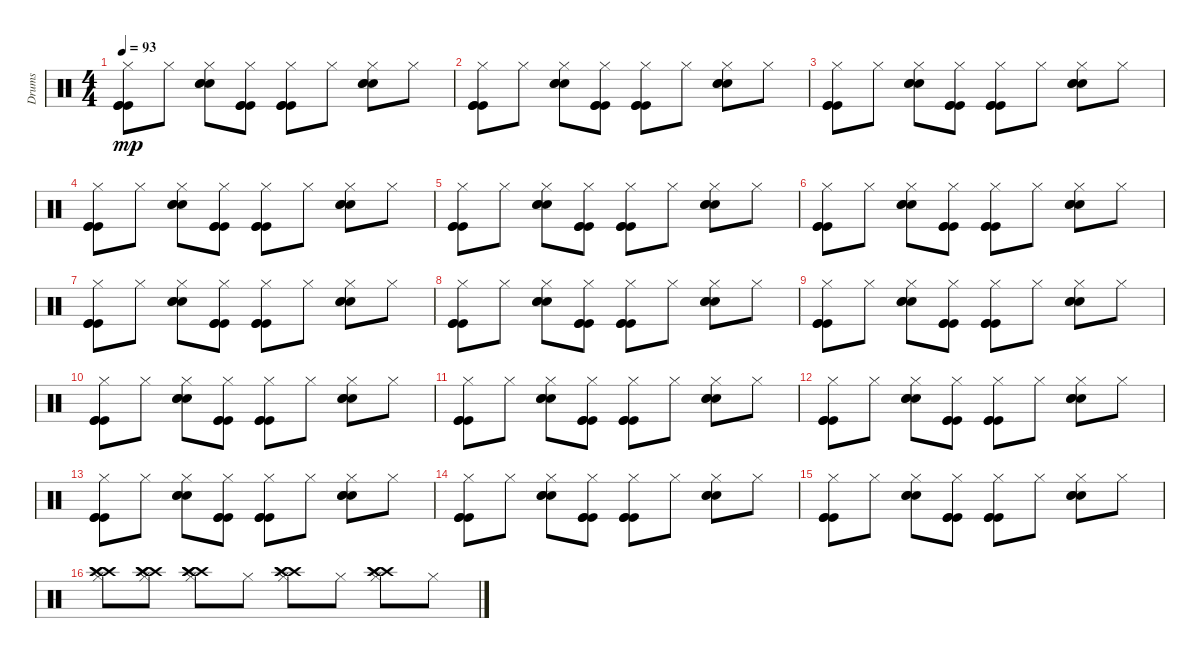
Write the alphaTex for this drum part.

\track ("Drums" "Drums") {instrument percussion}
\staff {score}
\articulation defaults
\ts (4 4)
\tempo 93
\clef neutral
\ks c
("Kick (hit)" "Kick (hit)" "Kick (hit)" "Hi-Hat (closed)").8{dy mp} "Hi-Hat (closed)".8 ("Snare (hit) 2" "Snare (hit) 2" "Snare (hit) 2" "Hi-Hat (closed)").8 ("Kick (hit)" "Kick (hit)" "Kick (hit)" "Hi-Hat (closed)").8 ("Kick (hit)" "Kick (hit)" "Kick (hit)" "Hi-Hat (closed)").8 "Hi-Hat (closed)".8 ("Snare (hit) 2" "Snare (hit) 2" "Snare (hit) 2" "Hi-Hat (closed)").8 "Hi-Hat (closed)".8 |
("Kick (hit)" "Kick (hit)" "Kick (hit)" "Hi-Hat (closed)").8 "Hi-Hat (closed)".8 ("Snare (hit) 2" "Snare (hit) 2" "Snare (hit) 2" "Hi-Hat (closed)").8 ("Kick (hit)" "Kick (hit)" "Kick (hit)" "Hi-Hat (closed)").8 ("Kick (hit)" "Kick (hit)" "Kick (hit)" "Hi-Hat (closed)").8 "Hi-Hat (closed)".8 ("Snare (hit) 2" "Snare (hit) 2" "Snare (hit) 2" "Hi-Hat (closed)").8 "Hi-Hat (closed)".8 |
("Kick (hit)" "Kick (hit)" "Kick (hit)" "Hi-Hat (closed)").8 "Hi-Hat (closed)".8 ("Snare (hit) 2" "Snare (hit) 2" "Snare (hit) 2" "Hi-Hat (closed)").8 ("Kick (hit)" "Kick (hit)" "Kick (hit)" "Hi-Hat (closed)").8 ("Kick (hit)" "Kick (hit)" "Kick (hit)" "Hi-Hat (closed)").8 "Hi-Hat (closed)".8 ("Snare (hit) 2" "Snare (hit) 2" "Snare (hit) 2" "Hi-Hat (closed)").8 "Hi-Hat (closed)".8 |
("Kick (hit)" "Kick (hit)" "Kick (hit)" "Hi-Hat (closed)").8 "Hi-Hat (closed)".8 ("Snare (hit) 2" "Snare (hit) 2" "Snare (hit) 2" "Hi-Hat (closed)").8 ("Kick (hit)" "Kick (hit)" "Kick (hit)" "Hi-Hat (closed)").8 ("Kick (hit)" "Kick (hit)" "Kick (hit)" "Hi-Hat (closed)").8 "Hi-Hat (closed)".8 ("Snare (hit) 2" "Snare (hit) 2" "Snare (hit) 2" "Hi-Hat (closed)").8 "Hi-Hat (closed)".8 |
("Kick (hit)" "Kick (hit)" "Kick (hit)" "Hi-Hat (closed)").8 "Hi-Hat (closed)".8 ("Snare (hit) 2" "Snare (hit) 2" "Snare (hit) 2" "Hi-Hat (closed)").8 ("Kick (hit)" "Kick (hit)" "Kick (hit)" "Hi-Hat (closed)").8 ("Kick (hit)" "Kick (hit)" "Kick (hit)" "Hi-Hat (closed)").8 "Hi-Hat (closed)".8 ("Snare (hit) 2" "Snare (hit) 2" "Snare (hit) 2" "Hi-Hat (closed)").8 "Hi-Hat (closed)".8 |
("Kick (hit)" "Kick (hit)" "Kick (hit)" "Hi-Hat (closed)").8 "Hi-Hat (closed)".8 ("Snare (hit) 2" "Snare (hit) 2" "Snare (hit) 2" "Hi-Hat (closed)").8 ("Kick (hit)" "Kick (hit)" "Kick (hit)" "Hi-Hat (closed)").8 ("Kick (hit)" "Kick (hit)" "Kick (hit)" "Hi-Hat (closed)").8 "Hi-Hat (closed)".8 ("Snare (hit) 2" "Snare (hit) 2" "Snare (hit) 2" "Hi-Hat (closed)").8 "Hi-Hat (closed)".8 |
("Kick (hit)" "Kick (hit)" "Kick (hit)" "Hi-Hat (closed)").8 "Hi-Hat (closed)".8 ("Snare (hit) 2" "Snare (hit) 2" "Snare (hit) 2" "Hi-Hat (closed)").8 ("Kick (hit)" "Kick (hit)" "Kick (hit)" "Hi-Hat (closed)").8 ("Kick (hit)" "Kick (hit)" "Kick (hit)" "Hi-Hat (closed)").8 "Hi-Hat (closed)".8 ("Snare (hit) 2" "Snare (hit) 2" "Snare (hit) 2" "Hi-Hat (closed)").8 "Hi-Hat (closed)".8 |
("Kick (hit)" "Kick (hit)" "Kick (hit)" "Hi-Hat (closed)").8 "Hi-Hat (closed)".8 ("Snare (hit) 2" "Snare (hit) 2" "Snare (hit) 2" "Hi-Hat (closed)").8 ("Kick (hit)" "Kick (hit)" "Kick (hit)" "Hi-Hat (closed)").8 ("Kick (hit)" "Kick (hit)" "Kick (hit)" "Hi-Hat (closed)").8 "Hi-Hat (closed)".8 ("Snare (hit) 2" "Snare (hit) 2" "Snare (hit) 2" "Hi-Hat (closed)").8 "Hi-Hat (closed)".8 |
("Kick (hit)" "Kick (hit)" "Kick (hit)" "Hi-Hat (closed)").8 "Hi-Hat (closed)".8 ("Snare (hit) 2" "Snare (hit) 2" "Snare (hit) 2" "Hi-Hat (closed)").8 ("Kick (hit)" "Kick (hit)" "Kick (hit)" "Hi-Hat (closed)").8 ("Kick (hit)" "Kick (hit)" "Kick (hit)" "Hi-Hat (closed)").8 "Hi-Hat (closed)".8 ("Snare (hit) 2" "Snare (hit) 2" "Snare (hit) 2" "Hi-Hat (closed)").8 "Hi-Hat (closed)".8 |
("Kick (hit)" "Kick (hit)" "Kick (hit)" "Hi-Hat (closed)").8 "Hi-Hat (closed)".8 ("Snare (hit) 2" "Snare (hit) 2" "Snare (hit) 2" "Hi-Hat (closed)").8 ("Kick (hit)" "Kick (hit)" "Kick (hit)" "Hi-Hat (closed)").8 ("Kick (hit)" "Kick (hit)" "Kick (hit)" "Hi-Hat (closed)").8 "Hi-Hat (closed)".8 ("Snare (hit) 2" "Snare (hit) 2" "Snare (hit) 2" "Hi-Hat (closed)").8 "Hi-Hat (closed)".8 |
("Kick (hit)" "Kick (hit)" "Kick (hit)" "Hi-Hat (closed)").8 "Hi-Hat (closed)".8 ("Snare (hit) 2" "Snare (hit) 2" "Snare (hit) 2" "Hi-Hat (closed)").8 ("Kick (hit)" "Kick (hit)" "Kick (hit)" "Hi-Hat (closed)").8 ("Kick (hit)" "Kick (hit)" "Kick (hit)" "Hi-Hat (closed)").8 "Hi-Hat (closed)".8 ("Snare (hit) 2" "Snare (hit) 2" "Snare (hit) 2" "Hi-Hat (closed)").8 "Hi-Hat (closed)".8 |
("Kick (hit)" "Kick (hit)" "Kick (hit)" "Hi-Hat (closed)").8 "Hi-Hat (closed)".8 ("Snare (hit) 2" "Snare (hit) 2" "Snare (hit) 2" "Hi-Hat (closed)").8 ("Kick (hit)" "Kick (hit)" "Kick (hit)" "Hi-Hat (closed)").8 ("Kick (hit)" "Kick (hit)" "Kick (hit)" "Hi-Hat (closed)").8 "Hi-Hat (closed)".8 ("Snare (hit) 2" "Snare (hit) 2" "Snare (hit) 2" "Hi-Hat (closed)").8 "Hi-Hat (closed)".8 |
("Kick (hit)" "Kick (hit)" "Kick (hit)" "Hi-Hat (closed)").8 "Hi-Hat (closed)".8 ("Snare (hit) 2" "Snare (hit) 2" "Snare (hit) 2" "Hi-Hat (closed)").8 ("Kick (hit)" "Kick (hit)" "Kick (hit)" "Hi-Hat (closed)").8 ("Kick (hit)" "Kick (hit)" "Kick (hit)" "Hi-Hat (closed)").8 "Hi-Hat (closed)".8 ("Snare (hit) 2" "Snare (hit) 2" "Snare (hit) 2" "Hi-Hat (closed)").8 "Hi-Hat (closed)".8 |
("Kick (hit)" "Kick (hit)" "Kick (hit)" "Hi-Hat (closed)").8 "Hi-Hat (closed)".8 ("Snare (hit) 2" "Snare (hit) 2" "Snare (hit) 2" "Hi-Hat (closed)").8 ("Kick (hit)" "Kick (hit)" "Kick (hit)" "Hi-Hat (closed)").8 ("Kick (hit)" "Kick (hit)" "Kick (hit)" "Hi-Hat (closed)").8 "Hi-Hat (closed)".8 ("Snare (hit) 2" "Snare (hit) 2" "Snare (hit) 2" "Hi-Hat (closed)").8 "Hi-Hat (closed)".8 |
("Kick (hit)" "Kick (hit)" "Kick (hit)" "Hi-Hat (closed)").8 "Hi-Hat (closed)".8 ("Snare (hit) 2" "Snare (hit) 2" "Snare (hit) 2" "Hi-Hat (closed)").8 ("Kick (hit)" "Kick (hit)" "Kick (hit)" "Hi-Hat (closed)").8 ("Kick (hit)" "Kick (hit)" "Kick (hit)" "Hi-Hat (closed)").8 "Hi-Hat (closed)".8 ("Snare (hit) 2" "Snare (hit) 2" "Snare (hit) 2" "Hi-Hat (closed)").8 "Hi-Hat (closed)".8 |
("Crash high (hit)" "Crash high (hit)" "Crash high (hit)" "Hi-Hat (closed)").8 ("Crash high (hit)" "Crash high (hit)" "Crash high (hit)" "Hi-Hat (closed)").8 ("Crash high (hit)" "Crash high (hit)" "Crash high (hit)" "Hi-Hat (closed)").8 "Hi-Hat (closed)".8 ("Crash high (hit)" "Crash high (hit)" "Crash high (hit)" "Hi-Hat (closed)").8 "Hi-Hat (closed)".8 ("Crash high (hit)" "Crash high (hit)" "Crash high (hit)" "Hi-Hat (closed)").8 "Hi-Hat (closed)".8
